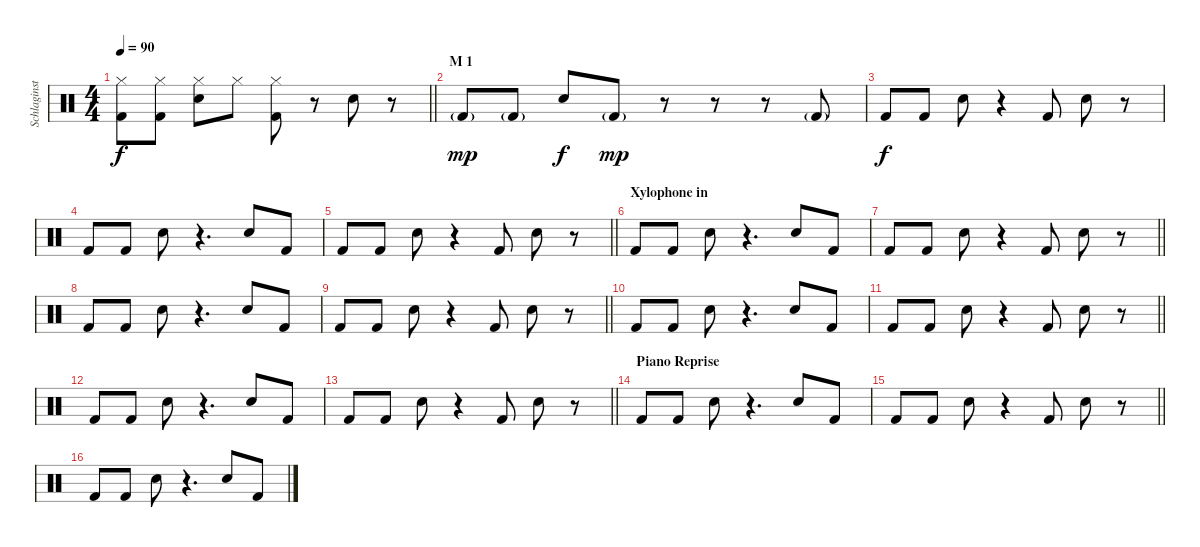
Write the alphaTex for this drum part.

\track ("Schlaginstrumente - Auswahl" "Schlaginst") {instrument percussion}
\staff {score}
\articulation defaults
\ts (4 4)
\tempo 90
\clef neutral
\barLineRight lightlight
\ks c
("Kick (hit) 2" "Hi-Hat (closed)").8{dy f} ("Kick (hit) 2" "Hi-Hat (closed)").8 ("Snare (hit) 2" "Hi-Hat (closed)").8 "Hi-Hat (closed)".8 ("Kick (hit) 2" "Hi-Hat (closed)").8 r.8 "Snare (hit) 2".8 r.8 |
\section ("" "M 1")
"Kick (hit) 2"{g}.8{dy mp} "Kick (hit) 2"{g}.8 "Snare (hit) 2".8{dy f} "Kick (hit) 2"{g}.8{dy mp} r.8 r.8 r.8 "Kick (hit) 2"{g}.8 |
"Kick (hit) 2".8{dy f} "Kick (hit) 2".8 "Snare (hit) 2".8 r.4 "Kick (hit) 2".8 "Snare (hit) 2".8 r.8 |
"Kick (hit) 2".8 "Kick (hit) 2".8 "Snare (hit) 2".8 r.4{d} "Snare (hit) 2".8 "Kick (hit) 2".8 |
\barLineRight lightlight "Kick (hit) 2".8 "Kick (hit) 2".8 "Snare (hit) 2".8
r.4 "Kick (hit) 2".8 "Snare (hit) 2".8 r.8 |
\section ("" "Xylophone in")
"Kick (hit) 2".8 "Kick (hit) 2".8 "Snare (hit) 2".8 r.4{d} "Snare (hit) 2".8 "Kick (hit) 2".8 |
\barLineRight lightlight "Kick (hit) 2".8 "Kick (hit) 2".8 "Snare (hit) 2".8
r.4 "Kick (hit) 2".8 "Snare (hit) 2".8 r.8 |
"Kick (hit) 2".8 "Kick (hit) 2".8 "Snare (hit) 2".8 r.4{d} "Snare (hit) 2".8 "Kick (hit) 2".8 |
\barLineRight lightlight "Kick (hit) 2".8 "Kick (hit) 2".8 "Snare (hit) 2".8
r.4 "Kick (hit) 2".8 "Snare (hit) 2".8 r.8 |
"Kick (hit) 2".8 "Kick (hit) 2".8 "Snare (hit) 2".8 r.4{d} "Snare (hit) 2".8 "Kick (hit) 2".8 |
\barLineRight lightlight "Kick (hit) 2".8 "Kick (hit) 2".8 "Snare (hit) 2".8
r.4 "Kick (hit) 2".8 "Snare (hit) 2".8 r.8 |
"Kick (hit) 2".8 "Kick (hit) 2".8 "Snare (hit) 2".8 r.4{d} "Snare (hit) 2".8 "Kick (hit) 2".8 |
\barLineRight lightlight "Kick (hit) 2".8 "Kick (hit) 2".8 "Snare (hit) 2".8
r.4 "Kick (hit) 2".8 "Snare (hit) 2".8 r.8 |
\section ("" "Piano Reprise")
"Kick (hit) 2".8 "Kick (hit) 2".8 "Snare (hit) 2".8 r.4{d} "Snare (hit) 2".8 "Kick (hit) 2".8 |
\barLineRight lightlight "Kick (hit) 2".8 "Kick (hit) 2".8 "Snare (hit) 2".8
r.4 "Kick (hit) 2".8 "Snare (hit) 2".8 r.8 |
"Kick (hit) 2".8 "Kick (hit) 2".8 "Snare (hit) 2".8 r.4{d} "Snare (hit) 2".8 "Kick (hit) 2".8
